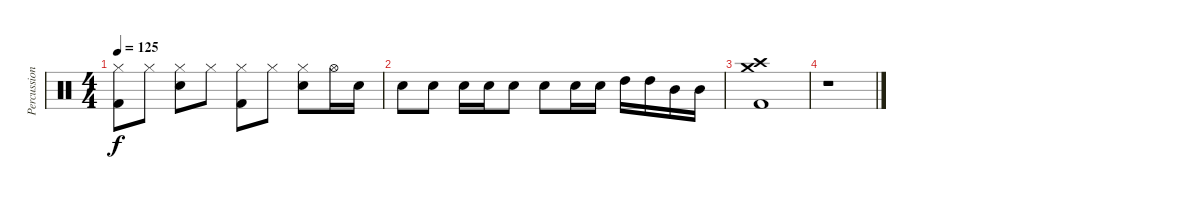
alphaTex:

\track ("Percussions" "Percussion") {instrument percussion}
\staff {score}
\articulation defaults
\ts (4 4)
\tempo 125
\clef neutral
\ks c
("Hi-Hat (closed)" "Kick (hit) 2").8{dy f} "Hi-Hat (closed)".8 ("Hi-Hat (closed)" "Snare (hit) 2").8 "Hi-Hat (closed)".8 ("Hi-Hat (closed)" "Kick (hit) 2").8 "Hi-Hat (closed)".8 ("Hi-Hat (closed)" "Snare (hit) 2").8 "Hi-Hat (open)".16 "Snare (hit) 2".16 |
"Snare (hit) 2".8 "Snare (hit) 2".8 "Snare (hit) 2".16 "Snare (hit) 2".16 "Snare (hit) 2".8 "Snare (hit) 2".8 "Snare (hit) 2".16 "Snare (hit) 2".16 "High Tom (hit)".16 "High Tom (hit)".16 "Mid Tom (hit)".16 "Mid Tom (hit)".16 |
("Crash medium (hit)" "Crash high (hit)" "Kick (hit) 2").1 |
r.1
